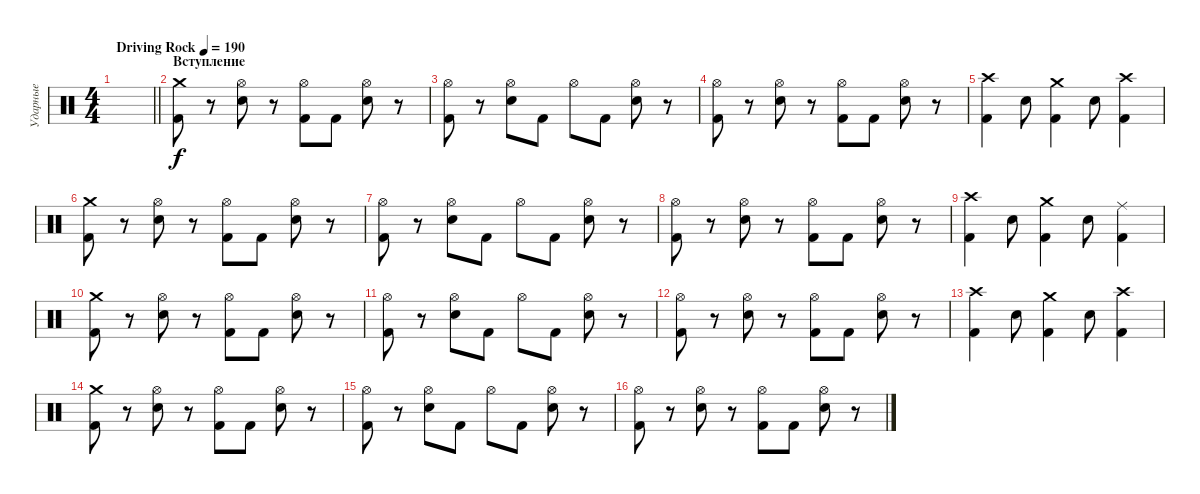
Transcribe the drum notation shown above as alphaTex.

\track ("Ударные" "Ударные") {instrument percussion}
\staff {score}
\articulation defaults
\ts (4 4)
\tempo (190 "Driving Rock")
\clef neutral
\barLineRight lightlight
\ks c
|
\section ("" "Вступление")
("Crash medium (hit)" "Kick (hit) 2").8 r.8 ("Hi-Hat (open)" "Electric Snare (hit)").8 r.8 ("Hi-Hat (open)" "Kick (hit) 2").8 "Kick (hit) 2".8 ("Hi-Hat (open)" "Electric Snare (hit)").8 r.8 |
("Hi-Hat (open)" "Kick (hit) 2").8 r.8 ("Hi-Hat (open)" "Electric Snare (hit)").8 "Kick (hit) 2".8 "Hi-Hat (open)".8 "Kick (hit) 2".8 ("Hi-Hat (open)" "Electric Snare (hit)").8 r.8 |
("Hi-Hat (open)" "Kick (hit) 2").8 r.8 ("Hi-Hat (open)" "Electric Snare (hit)").8 r.8 ("Hi-Hat (open)" "Kick (hit) 2").8 "Kick (hit) 2".8 ("Hi-Hat (open)" "Electric Snare (hit)").8 r.8 |
("Crash high (hit)" "Kick (hit) 2").4 "Electric Snare (hit)".8 ("Crash medium (hit)" "Kick (hit) 2").4 "Electric Snare (hit)".8 ("Crash high (hit)" "Kick (hit) 2").4 |
("Crash medium (hit)" "Kick (hit) 2").8 r.8 ("Hi-Hat (open)" "Electric Snare (hit)").8 r.8 ("Hi-Hat (open)" "Kick (hit) 2").8 "Kick (hit) 2".8 ("Hi-Hat (open)" "Electric Snare (hit)").8 r.8 |
("Hi-Hat (open)" "Kick (hit) 2").8 r.8 ("Hi-Hat (open)" "Electric Snare (hit)").8 "Kick (hit) 2".8 "Hi-Hat (open)".8 "Kick (hit) 2".8 ("Hi-Hat (open)" "Electric Snare (hit)").8 r.8 |
("Hi-Hat (open)" "Kick (hit) 2").8 r.8 ("Hi-Hat (open)" "Electric Snare (hit)").8 r.8 ("Hi-Hat (open)" "Kick (hit) 2").8 "Kick (hit) 2".8 ("Hi-Hat (open)" "Electric Snare (hit)").8 r.8 |
("Crash high (hit)" "Kick (hit) 2").4 "Electric Snare (hit)".8 ("Crash medium (hit)" "Kick (hit) 2").4 "Electric Snare (hit)".8 ("Ride (middle)" "Kick (hit) 2").4 |
("Crash medium (hit)" "Kick (hit) 2").8 r.8 ("Hi-Hat (open)" "Electric Snare (hit)").8 r.8 ("Hi-Hat (open)" "Kick (hit) 2").8 "Kick (hit) 2".8 ("Hi-Hat (open)" "Electric Snare (hit)").8 r.8 |
("Hi-Hat (open)" "Kick (hit) 2").8 r.8 ("Hi-Hat (open)" "Electric Snare (hit)").8 "Kick (hit) 2".8 "Hi-Hat (open)".8 "Kick (hit) 2".8 ("Hi-Hat (open)" "Electric Snare (hit)").8 r.8 |
("Hi-Hat (open)" "Kick (hit) 2").8 r.8 ("Hi-Hat (open)" "Electric Snare (hit)").8 r.8 ("Hi-Hat (open)" "Kick (hit) 2").8 "Kick (hit) 2".8 ("Hi-Hat (open)" "Electric Snare (hit)").8 r.8 |
("Crash high (hit)" "Kick (hit) 2").4 "Electric Snare (hit)".8 ("Crash medium (hit)" "Kick (hit) 2").4 "Electric Snare (hit)".8 ("Crash high (hit)" "Kick (hit) 2").4 |
("Crash medium (hit)" "Kick (hit) 2").8 r.8 ("Hi-Hat (open)" "Electric Snare (hit)").8 r.8 ("Hi-Hat (open)" "Kick (hit) 2").8 "Kick (hit) 2".8 ("Hi-Hat (open)" "Electric Snare (hit)").8 r.8 |
("Hi-Hat (open)" "Kick (hit) 2").8 r.8 ("Hi-Hat (open)" "Electric Snare (hit)").8 "Kick (hit) 2".8 "Hi-Hat (open)".8 "Kick (hit) 2".8 ("Hi-Hat (open)" "Electric Snare (hit)").8 r.8 |
("Hi-Hat (open)" "Kick (hit) 2").8 r.8 ("Hi-Hat (open)" "Electric Snare (hit)").8 r.8 ("Hi-Hat (open)" "Kick (hit) 2").8 "Kick (hit) 2".8 ("Hi-Hat (open)" "Electric Snare (hit)").8 r.8
